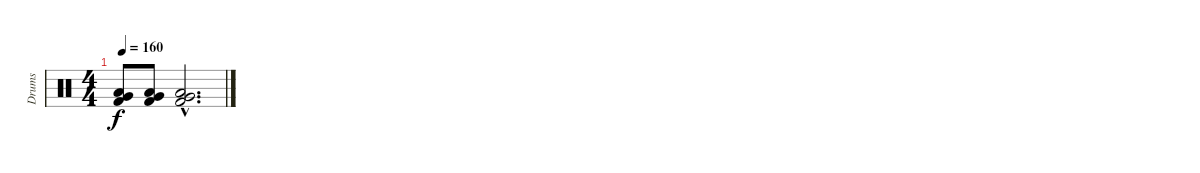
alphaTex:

\track ("Drums" "Drums") {instrument percussion}
\staff {score}
\articulation defaults
\ts (4 4)
\tempo 160
\clef neutral
\ks c
("Very Low Tom (hit)" "Low Tom (hit)" "Kick (hit) 2").8{dy f} ("Very Low Tom (hit)" "Low Tom (hit)" "Kick (hit) 2").8 ("Very Low Tom (hit)"{hac} "Low Tom (hit)"{hac} "Kick (hit) 2"{hac}).2{d}
